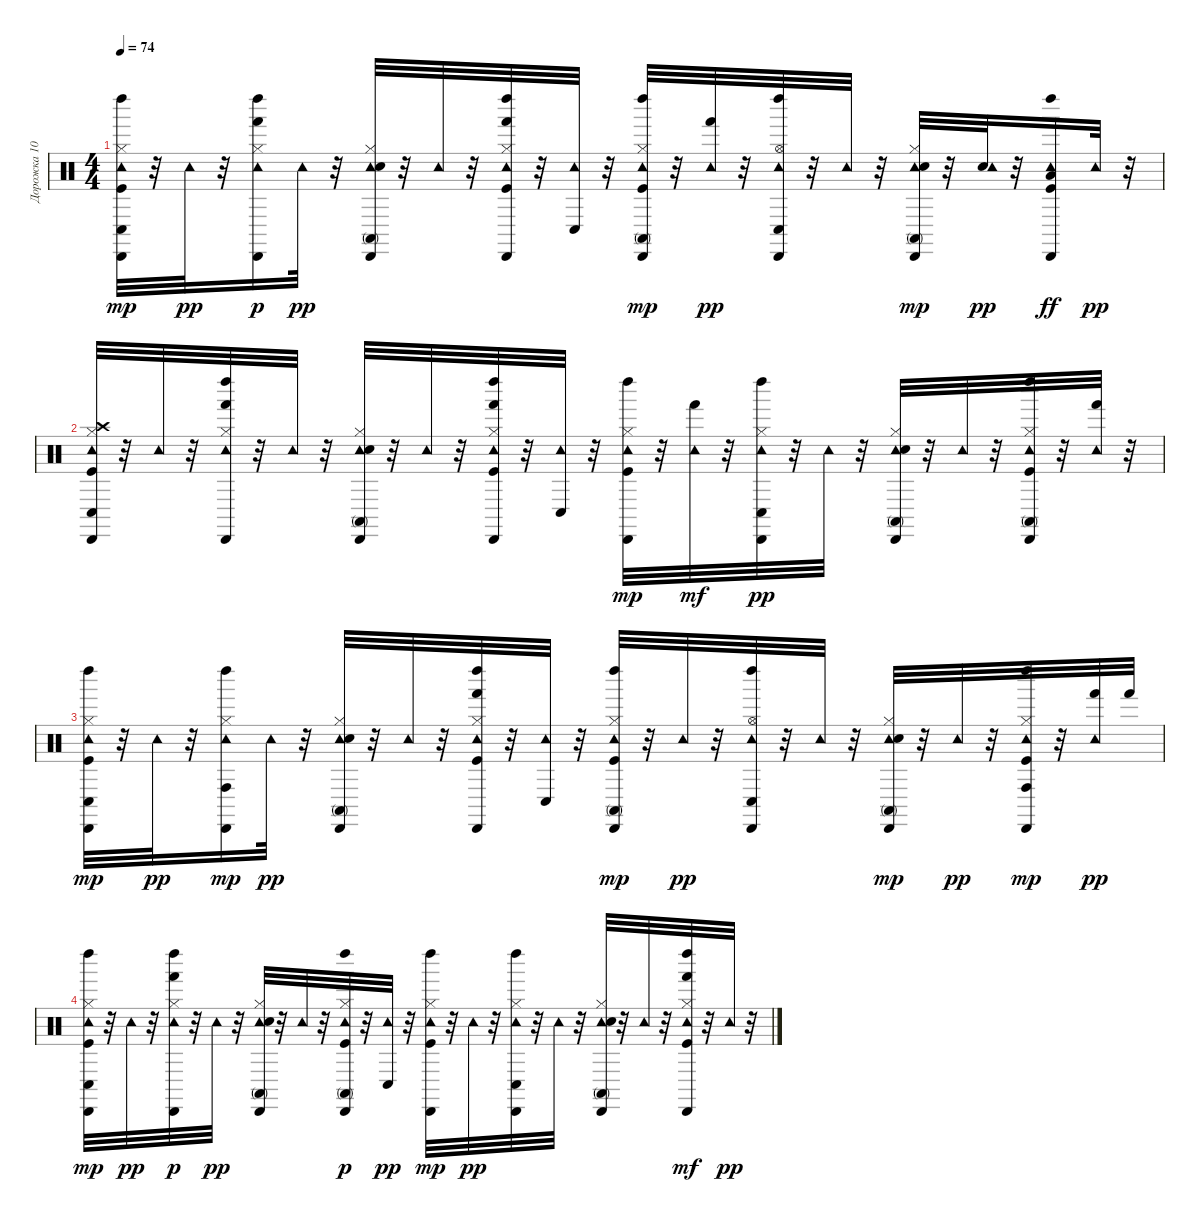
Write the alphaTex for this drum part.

\track ("Дорожка 10" "Дорожка 10") {instrument percussion}
\staff {score}
\articulation defaults
\ts (4 4)
\tempo 74
\clef neutral
\ks c
("Conga low (hit)" "Tambourine (hit)" "Kick (hit)" "Hi-Hat (closed)" "Cabasa (hit)" "Left Maraca (hit)").32{dy mp} r.32 "Tambourine (hit)".32{dy pp} r.32 ("Hi-Hat (closed)" "Tambourine (hit)" "Cabasa (hit)" "Left Maraca (hit)" "Hand (hit)").16{dy p} "Tambourine (hit)".32{dy pp} r.32 ("Tambourine (hit)" "Electric Snare (hit)" "Hi-Hat (closed)" "Conga high (mute)" "Cabasa (hit)").32 r.32 "Tambourine (hit)".32 r.32 ("Kick (hit)" "Hi-Hat (closed)" "Tambourine (hit)" "Cabasa (hit)" "Left Maraca (hit)" "Hand (hit)").32 r.32 ("Conga low (hit)" "Tambourine (hit)").32 r.32 ("Kick (hit)" "Hi-Hat (closed)" "Tambourine (hit)" "Conga high (mute)" "Cabasa (hit)" "Left Maraca (hit)").32{dy mp} r.32 ("Tambourine (hit)" "Hand (hit)").32{dy pp} r.32 ("Conga low (hit)" "Hi-Hat (open)" "Tambourine (hit)" "Cabasa (hit)" "Left Maraca (hit)").32 r.32 "Tambourine (hit)".32 r.32 ("Tambourine (hit)" "Electric Snare (hit)" "Hi-Hat (closed)" "Cabasa (hit)" "Conga high (mute)").32{dy mp} r.32 ("Electric Snare (hit)" "Tambourine (hit)").32{dy pp} r.32 ("Kick (hit)" "Tambourine (hit)" "Cabasa (hit)" "Left Maraca (hit)" "Low Tom (hit)").16{dy ff} "Tambourine (hit)".32{dy pp} r.32 |
("Crash high (hit)" "Conga low (hit)" "Tambourine (hit)" "Kick (hit)" "Hi-Hat (closed)" "Cabasa (hit)").32 r.32 "Tambourine (hit)".32 r.32 ("Hand (hit)" "Hi-Hat (closed)" "Tambourine (hit)" "Cabasa (hit)" "Left Maraca (hit)").32 r.32 "Tambourine (hit)".32 r.32 ("Conga high (mute)" "Tambourine (hit)" "Electric Snare (hit)" "Hi-Hat (closed)" "Cabasa (hit)").32 r.32 "Tambourine (hit)".32 r.32 ("Hand (hit)" "Kick (hit)" "Hi-Hat (closed)" "Tambourine (hit)" "Cabasa (hit)" "Left Maraca (hit)").32 r.32 ("Conga low (hit)" "Tambourine (hit)").32 r.32 ("Kick (hit)" "Hi-Hat (closed)" "Tambourine (hit)" "Cabasa (hit)" "Left Maraca (hit)").32{dy mp} r.32 ("Tambourine (hit)" "Hand (hit)").32{dy mf} r.32 ("Conga low (hit)" "Hi-Hat (closed)" "Tambourine (hit)" "Cabasa (hit)" "Left Maraca (hit)").32{dy pp} r.32 "Tambourine (hit)".32 r.32 ("Conga high (mute)" "Tambourine (hit)" "Electric Snare (hit)" "Hi-Hat (closed)" "Cabasa (hit)").32 r.32 "Tambourine (hit)".32 r.32 ("Conga high (mute)" "Kick (hit)" "Hi-Hat (closed)" "Tambourine (hit)" "Cabasa (hit)" "Left Maraca (hit)").32 r.32 ("Hand (hit)" "Tambourine (hit)").32 r.32 |
("Conga low (hit)" "Tambourine (hit)" "Kick (hit)" "Hi-Hat (closed)" "Cabasa (hit)" "Left Maraca (hit)").32{dy mp} r.32 "Tambourine (hit)".32{dy pp} r.32 ("Hi-Hat (closed)" "Tambourine (hit)" "Cabasa (hit)" "Left Maraca (hit)" "Conga high (hit)").16{dy mp} "Tambourine (hit)".32{dy pp} r.32 ("Conga high (mute)" "Tambourine (hit)" "Electric Snare (hit)" "Hi-Hat (closed)" "Cabasa (hit)").32 r.32 "Tambourine (hit)".32 r.32 ("Hand (hit)" "Kick (hit)" "Hi-Hat (closed)" "Tambourine (hit)" "Cabasa (hit)" "Left Maraca (hit)").32 r.32 ("Conga low (hit)" "Tambourine (hit)").32 r.32 ("Kick (hit)" "Hi-Hat (closed)" "Tambourine (hit)" "Conga high (mute)" "Cabasa (hit)" "Left Maraca (hit)").32{dy mp} r.32 "Tambourine (hit)".32{dy pp} r.32 ("Conga low (hit)" "Hi-Hat (open)" "Tambourine (hit)" "Cabasa (hit)" "Left Maraca (hit)").32 r.32 "Tambourine (hit)".32 r.32 ("Tambourine (hit)" "Electric Snare (hit)" "Hi-Hat (closed)" "Cabasa (hit)" "Conga high (mute)").32{dy mp} r.32 "Tambourine (hit)".32{dy pp} r.32 ("Kick (hit)" "Hi-Hat (closed)" "Tambourine (hit)" "Cabasa (hit)" "Left Maraca (hit)" "Conga high (hit)").32{dy mp} r.32 ("Hand (hit)" "Tambourine (hit)").32{dy pp} "Hand (hit)".32 |
("Conga low (hit)" "Tambourine (hit)" "Kick (hit)" "Hi-Hat (closed)" "Cabasa (hit)" "Left Maraca (hit)").32{dy mp} r.32 "Tambourine (hit)".32{dy pp} r.32 ("Hi-Hat (closed)" "Tambourine (hit)" "Cabasa (hit)" "Left Maraca (hit)" "Hand (hit)").32{dy p} r.32 "Tambourine (hit)".32{dy pp} r.32 ("Tambourine (hit)" "Electric Snare (hit)" "Hi-Hat (closed)" "Conga high (mute)" "Cabasa (hit)").32 r.32 "Tambourine (hit)".32 r.32 ("Kick (hit)" "Hi-Hat (closed)" "Tambourine (hit)" "Cabasa (hit)" "Left Maraca (hit)" "Conga high (mute)").32{dy p} r.32 ("Conga low (hit)" "Tambourine (hit)").32{dy pp} r.32 ("Kick (hit)" "Hi-Hat (closed)" "Tambourine (hit)" "Cabasa (hit)" "Left Maraca (hit)").32{dy mp} r.32 "Tambourine (hit)".32{dy pp} r.32 ("Conga low (hit)" "Hi-Hat (closed)" "Tambourine (hit)" "Cabasa (hit)" "Left Maraca (hit)").32 r.32 "Tambourine (hit)".32 r.32 ("Conga high (mute)" "Tambourine (hit)" "Electric Snare (hit)" "Hi-Hat (closed)" "Cabasa (hit)").32 r.32 "Tambourine (hit)".32 r.32 ("Kick (hit)" "Hi-Hat (closed)" "Tambourine (hit)" "Cabasa (hit)" "Left Maraca (hit)" "Hand (hit)").32{dy mf} r.32 "Tambourine (hit)".32{dy pp} r.32
